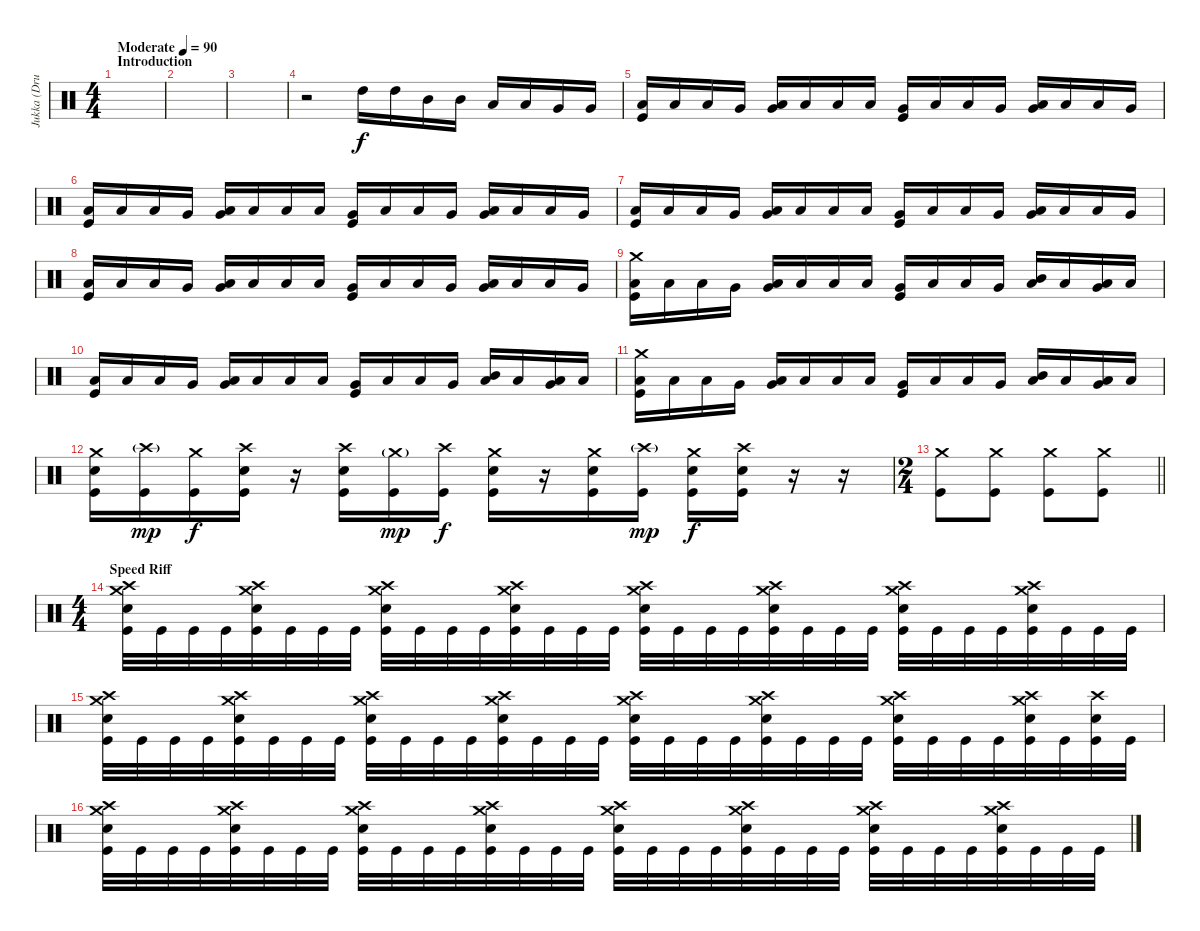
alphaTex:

\track ("Jukka (Drums)" "Jukka (Dru") {instrument percussion}
\staff {score}
\articulation defaults
\ts (4 4)
\section ("" "Introduction ")
\tempo (90 "Moderate")
\clef neutral
\ks c
|
|
|
r.2 "High Tom (hit)".16 "High Tom (hit)".16 "Mid Tom (hit)".16 "Mid Tom (hit)".16 "Low Tom (hit)".16 "Low Tom (hit)".16 "Very Low Tom (hit)".16 "Very Low Tom (hit)".16 |
("Low Floor Tom (hit)" "Kick (hit)").16 "Low Floor Tom (hit)".16 "Low Floor Tom (hit)".16 "Very Low Tom (hit)".16 ("Low Tom (hit)" "Very Low Tom (hit)").16 "Low Floor Tom (hit)".16 "Low Floor Tom (hit)".16 "Low Floor Tom (hit)".16 ("Very Low Tom (hit)" "Kick (hit)").16 "Low Floor Tom (hit)".16 "Low Floor Tom (hit)".16 "Very Low Tom (hit)".16 ("Low Tom (hit)" "Very Low Tom (hit)").16 "Low Floor Tom (hit)".16 "Low Tom (hit)".16 "Very Low Tom (hit)".16 |
("Low Floor Tom (hit)" "Kick (hit)").16 "Low Floor Tom (hit)".16 "Low Floor Tom (hit)".16 "Very Low Tom (hit)".16 ("Low Tom (hit)" "Very Low Tom (hit)").16 "Low Floor Tom (hit)".16 "Low Floor Tom (hit)".16 "Low Floor Tom (hit)".16 ("Very Low Tom (hit)" "Kick (hit)").16 "Low Floor Tom (hit)".16 "Low Floor Tom (hit)".16 "Very Low Tom (hit)".16 ("Low Tom (hit)" "Very Low Tom (hit)").16 "Low Floor Tom (hit)".16 "Low Tom (hit)".16 "Very Low Tom (hit)".16 |
("Low Floor Tom (hit)" "Kick (hit)").16 "Low Floor Tom (hit)".16 "Low Floor Tom (hit)".16 "Very Low Tom (hit)".16 ("Low Tom (hit)" "Very Low Tom (hit)").16 "Low Floor Tom (hit)".16 "Low Floor Tom (hit)".16 "Low Floor Tom (hit)".16 ("Very Low Tom (hit)" "Kick (hit)").16 "Low Floor Tom (hit)".16 "Low Floor Tom (hit)".16 "Very Low Tom (hit)".16 ("Low Tom (hit)" "Very Low Tom (hit)").16 "Low Floor Tom (hit)".16 "Low Tom (hit)".16 "Very Low Tom (hit)".16 |
("Low Floor Tom (hit)" "Kick (hit)").16 "Low Floor Tom (hit)".16 "Low Floor Tom (hit)".16 "Very Low Tom (hit)".16 ("Low Tom (hit)" "Very Low Tom (hit)").16 "Low Floor Tom (hit)".16 "Low Floor Tom (hit)".16 "Low Floor Tom (hit)".16 ("Very Low Tom (hit)" "Kick (hit)").16 "Low Floor Tom (hit)".16 "Low Floor Tom (hit)".16 "Very Low Tom (hit)".16 ("Low Tom (hit)" "Very Low Tom (hit)").16 "Low Floor Tom (hit)".16 "Low Tom (hit)".16 "Very Low Tom (hit)".16 |
("Crash medium (hit)" "Low Floor Tom (hit)" "Kick (hit)").16 "Low Floor Tom (hit)".16 "Low Floor Tom (hit)".16 "Very Low Tom (hit)".16 ("Low Tom (hit)" "Very Low Tom (hit)").16 "Low Floor Tom (hit)".16 "Low Floor Tom (hit)".16 "Low Floor Tom (hit)".16 ("Very Low Tom (hit)" "Kick (hit)").16 "Low Floor Tom (hit)".16 "Low Floor Tom (hit)".16 "Very Low Tom (hit)".16 ("Mid Tom (hit)" "Low Tom (hit)").16 "Low Floor Tom (hit)".16 ("Low Tom (hit)" "Very Low Tom (hit)").16 "Low Floor Tom (hit)".16 |
("Low Floor Tom (hit)" "Kick (hit)").16 "Low Floor Tom (hit)".16 "Low Floor Tom (hit)".16 "Very Low Tom (hit)".16 ("Low Tom (hit)" "Very Low Tom (hit)").16 "Low Floor Tom (hit)".16 "Low Floor Tom (hit)".16 "Low Floor Tom (hit)".16 ("Very Low Tom (hit)" "Kick (hit)").16 "Low Floor Tom (hit)".16 "Low Floor Tom (hit)".16 "Very Low Tom (hit)".16 ("Mid Tom (hit)" "Low Tom (hit)").16 "Low Floor Tom (hit)".16 ("Low Tom (hit)" "Very Low Tom (hit)").16 "Low Floor Tom (hit)".16 |
("Crash medium (hit)" "Low Floor Tom (hit)" "Kick (hit)").16 "Low Floor Tom (hit)".16 "Low Floor Tom (hit)".16 "Very Low Tom (hit)".16 ("Low Tom (hit)" "Very Low Tom (hit)").16 "Low Floor Tom (hit)".16 "Low Floor Tom (hit)".16 "Low Floor Tom (hit)".16 ("Very Low Tom (hit)" "Kick (hit)").16 "Low Floor Tom (hit)".16 "Low Floor Tom (hit)".16 "Very Low Tom (hit)".16 ("Mid Tom (hit)" "Low Tom (hit)").16 "Low Floor Tom (hit)".16 ("Low Tom (hit)" "Very Low Tom (hit)").16 "Low Floor Tom (hit)".16 |
("Crash medium (hit)" "Snare (hit) 2" "Kick (hit)").16 ("Crash high (hit)"{g} "Kick (hit)").16{dy mp} ("Crash medium (hit)" "Kick (hit)").16{dy f} ("Crash high (hit)" "Snare (hit) 2" "Kick (hit)").16 r.16 ("Crash high (hit)" "Snare (hit) 2" "Kick (hit)").16 ("Crash medium (hit)"{g} "Kick (hit)").16{dy mp} ("Crash high (hit)" "Kick (hit)").16{dy f} ("Crash medium (hit)" "Snare (hit) 2" "Kick (hit)").16 r.16 ("Crash medium (hit)" "Snare (hit) 2" "Kick (hit)").16 ("Crash high (hit)"{g} "Kick (hit)").16{dy mp} ("Crash medium (hit)" "Snare (hit) 2" "Kick (hit)").16{dy f} ("Crash high (hit)" "Snare (hit) 2" "Kick (hit)").16 r.16 r.16{volume 8} |
\ts (2 4)
\barLineRight lightlight
("Crash medium (hit)" "Kick (hit)").8{volume 16} ("Crash medium (hit)" "Kick (hit)").8 ("Crash medium (hit)" "Kick (hit)").8 ("Crash medium (hit)" "Kick (hit)").8 |
\ts (4 4)
\section ("" "Speed Riff")
("Crash medium (hit)" "Crash high (hit)" "Snare (hit) 2" "Kick (hit)").32 "Kick (hit)".32 "Kick (hit)".32 "Kick (hit)".32 ("Crash medium (hit)" "Crash high (hit)" "Snare (hit) 2" "Kick (hit)").32 "Kick (hit)".32 "Kick (hit)".32 "Kick (hit)".32 ("Crash medium (hit)" "Crash high (hit)" "Snare (hit) 2" "Kick (hit)").32 "Kick (hit)".32 "Kick (hit)".32 "Kick (hit)".32 ("Crash medium (hit)" "Crash high (hit)" "Snare (hit) 2" "Kick (hit)").32 "Kick (hit)".32 "Kick (hit)".32 "Kick (hit)".32 ("Crash medium (hit)" "Crash high (hit)" "Snare (hit) 2" "Kick (hit)").32 "Kick (hit)".32 "Kick (hit)".32 "Kick (hit)".32 ("Crash medium (hit)" "Crash high (hit)" "Snare (hit) 2" "Kick (hit)").32 "Kick (hit)".32 "Kick (hit)".32 "Kick (hit)".32 ("Crash medium (hit)" "Crash high (hit)" "Snare (hit) 2" "Kick (hit)").32 "Kick (hit)".32 "Kick (hit)".32 "Kick (hit)".32 ("Crash medium (hit)" "Crash high (hit)" "Snare (hit) 2" "Kick (hit)").32 "Kick (hit)".32 "Kick (hit)".32 "Kick (hit)".32 |
("Crash medium (hit)" "Crash high (hit)" "Snare (hit) 2" "Kick (hit)").32 "Kick (hit)".32 "Kick (hit)".32 "Kick (hit)".32 ("Crash medium (hit)" "Crash high (hit)" "Snare (hit) 2" "Kick (hit)").32 "Kick (hit)".32 "Kick (hit)".32 "Kick (hit)".32 ("Crash medium (hit)" "Crash high (hit)" "Snare (hit) 2" "Kick (hit)").32 "Kick (hit)".32 "Kick (hit)".32 "Kick (hit)".32 ("Crash medium (hit)" "Crash high (hit)" "Snare (hit) 2" "Kick (hit)").32 "Kick (hit)".32 "Kick (hit)".32 "Kick (hit)".32 ("Crash medium (hit)" "Crash high (hit)" "Snare (hit) 2" "Kick (hit)").32 "Kick (hit)".32 "Kick (hit)".32 "Kick (hit)".32 ("Crash medium (hit)" "Crash high (hit)" "Snare (hit) 2" "Kick (hit)").32 "Kick (hit)".32 "Kick (hit)".32 "Kick (hit)".32 ("Crash medium (hit)" "Crash high (hit)" "Snare (hit) 2" "Kick (hit)").32 "Kick (hit)".32 "Kick (hit)".32 "Kick (hit)".32 ("Crash medium (hit)" "Crash high (hit)" "Snare (hit) 2" "Kick (hit)").32 "Kick (hit)".32 ("Crash high (hit)" "Snare (hit) 2" "Kick (hit)").32 "Kick (hit)".32 |
("Crash medium (hit)" "Crash high (hit)" "Snare (hit) 2" "Kick (hit)").32 "Kick (hit)".32 "Kick (hit)".32 "Kick (hit)".32 ("Crash medium (hit)" "Crash high (hit)" "Snare (hit) 2" "Kick (hit)").32 "Kick (hit)".32 "Kick (hit)".32 "Kick (hit)".32 ("Crash medium (hit)" "Crash high (hit)" "Snare (hit) 2" "Kick (hit)").32 "Kick (hit)".32 "Kick (hit)".32 "Kick (hit)".32 ("Crash medium (hit)" "Crash high (hit)" "Snare (hit) 2" "Kick (hit)").32 "Kick (hit)".32 "Kick (hit)".32 "Kick (hit)".32 ("Crash medium (hit)" "Crash high (hit)" "Snare (hit) 2" "Kick (hit)").32 "Kick (hit)".32 "Kick (hit)".32 "Kick (hit)".32 ("Crash medium (hit)" "Crash high (hit)" "Snare (hit) 2" "Kick (hit)").32 "Kick (hit)".32 "Kick (hit)".32 "Kick (hit)".32 ("Crash medium (hit)" "Crash high (hit)" "Snare (hit) 2" "Kick (hit)").32 "Kick (hit)".32 "Kick (hit)".32 "Kick (hit)".32 ("Crash medium (hit)" "Crash high (hit)" "Snare (hit) 2" "Kick (hit)").32 "Kick (hit)".32 "Kick (hit)".32 "Kick (hit)".32
